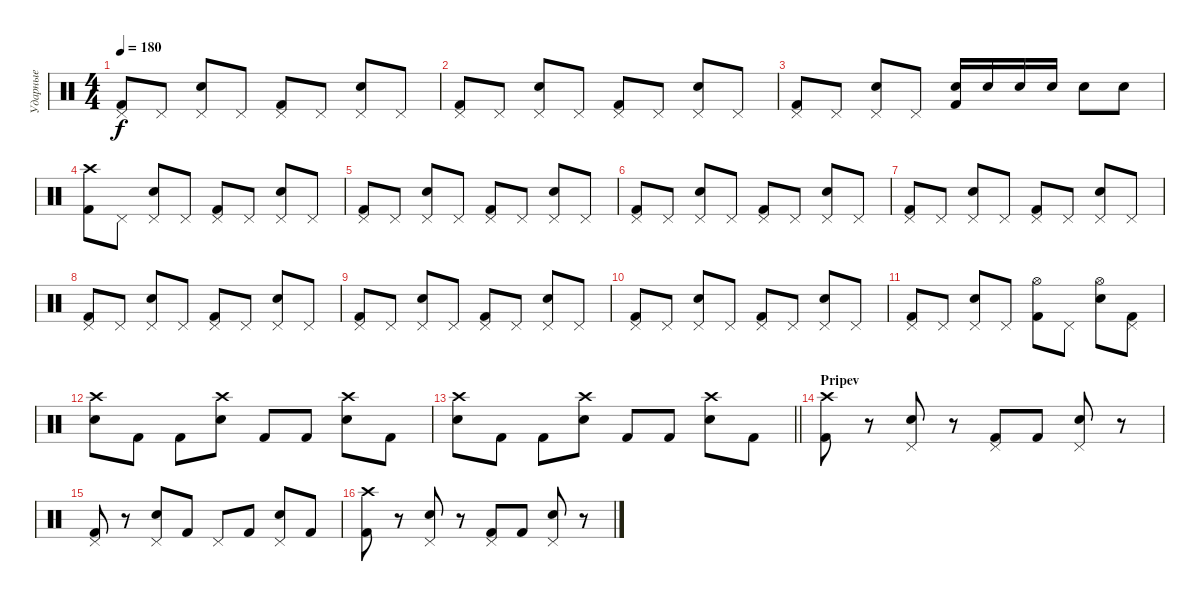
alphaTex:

\track ("Ударные" "Ударные") {instrument percussion}
\staff {score}
\articulation defaults
\ts (4 4)
\tempo 180
\clef neutral
\ks c
("Pedal Hi-Hat (hit)" "Kick (hit) 2").8{dy f} "Pedal Hi-Hat (hit)".8 ("Pedal Hi-Hat (hit)" "Electric Snare (hit)").8 "Pedal Hi-Hat (hit)".8 ("Pedal Hi-Hat (hit)" "Kick (hit) 2").8 "Pedal Hi-Hat (hit)".8 ("Pedal Hi-Hat (hit)" "Electric Snare (hit)").8 "Pedal Hi-Hat (hit)".8 |
("Pedal Hi-Hat (hit)" "Kick (hit) 2").8 "Pedal Hi-Hat (hit)".8 ("Pedal Hi-Hat (hit)" "Electric Snare (hit)").8 "Pedal Hi-Hat (hit)".8 ("Pedal Hi-Hat (hit)" "Kick (hit) 2").8 "Pedal Hi-Hat (hit)".8 ("Pedal Hi-Hat (hit)" "Electric Snare (hit)").8 "Pedal Hi-Hat (hit)".8 |
("Pedal Hi-Hat (hit)" "Kick (hit) 2").8 "Pedal Hi-Hat (hit)".8 ("Pedal Hi-Hat (hit)" "Electric Snare (hit)").8 "Pedal Hi-Hat (hit)".8 ("Electric Snare (hit)" "Kick (hit) 2").16 "Electric Snare (hit)".16 "Electric Snare (hit)".16 "Electric Snare (hit)".16 "Electric Snare (hit)".8 "Electric Snare (hit)".8 |
("Crash high (hit)" "Kick (hit) 2").8 "Pedal Hi-Hat (hit)".8 ("Pedal Hi-Hat (hit)" "Electric Snare (hit)").8 "Pedal Hi-Hat (hit)".8 ("Pedal Hi-Hat (hit)" "Kick (hit) 2").8 "Pedal Hi-Hat (hit)".8 ("Pedal Hi-Hat (hit)" "Electric Snare (hit)").8 "Pedal Hi-Hat (hit)".8 |
("Pedal Hi-Hat (hit)" "Kick (hit) 2").8 "Pedal Hi-Hat (hit)".8 ("Pedal Hi-Hat (hit)" "Electric Snare (hit)").8 "Pedal Hi-Hat (hit)".8 ("Pedal Hi-Hat (hit)" "Kick (hit) 2").8 "Pedal Hi-Hat (hit)".8 ("Pedal Hi-Hat (hit)" "Electric Snare (hit)").8 "Pedal Hi-Hat (hit)".8 |
("Pedal Hi-Hat (hit)" "Kick (hit) 2").8 "Pedal Hi-Hat (hit)".8 ("Pedal Hi-Hat (hit)" "Electric Snare (hit)").8 "Pedal Hi-Hat (hit)".8 ("Pedal Hi-Hat (hit)" "Kick (hit) 2").8 "Pedal Hi-Hat (hit)".8 ("Pedal Hi-Hat (hit)" "Electric Snare (hit)").8 "Pedal Hi-Hat (hit)".8 |
("Pedal Hi-Hat (hit)" "Kick (hit) 2").8 "Pedal Hi-Hat (hit)".8 ("Pedal Hi-Hat (hit)" "Electric Snare (hit)").8 "Pedal Hi-Hat (hit)".8 ("Pedal Hi-Hat (hit)" "Kick (hit) 2").8 "Pedal Hi-Hat (hit)".8 ("Pedal Hi-Hat (hit)" "Electric Snare (hit)").8 "Pedal Hi-Hat (hit)".8 |
("Pedal Hi-Hat (hit)" "Kick (hit) 2").8 "Pedal Hi-Hat (hit)".8 ("Pedal Hi-Hat (hit)" "Electric Snare (hit)").8 "Pedal Hi-Hat (hit)".8 ("Pedal Hi-Hat (hit)" "Kick (hit) 2").8 "Pedal Hi-Hat (hit)".8 ("Pedal Hi-Hat (hit)" "Electric Snare (hit)").8 "Pedal Hi-Hat (hit)".8 |
("Pedal Hi-Hat (hit)" "Kick (hit) 2").8 "Pedal Hi-Hat (hit)".8 ("Pedal Hi-Hat (hit)" "Electric Snare (hit)").8 "Pedal Hi-Hat (hit)".8 ("Pedal Hi-Hat (hit)" "Kick (hit) 2").8 "Pedal Hi-Hat (hit)".8 ("Pedal Hi-Hat (hit)" "Electric Snare (hit)").8 "Pedal Hi-Hat (hit)".8 |
("Pedal Hi-Hat (hit)" "Kick (hit) 2").8 "Pedal Hi-Hat (hit)".8 ("Pedal Hi-Hat (hit)" "Electric Snare (hit)").8 "Pedal Hi-Hat (hit)".8 ("Pedal Hi-Hat (hit)" "Kick (hit) 2").8 "Pedal Hi-Hat (hit)".8 ("Pedal Hi-Hat (hit)" "Electric Snare (hit)").8 "Pedal Hi-Hat (hit)".8 |
("Pedal Hi-Hat (hit)" "Kick (hit) 2").8 "Pedal Hi-Hat (hit)".8 ("Pedal Hi-Hat (hit)" "Electric Snare (hit)").8 "Pedal Hi-Hat (hit)".8 ("Hi-Hat (open)" "Kick (hit) 2").8 "Pedal Hi-Hat (hit)".8 ("Hi-Hat (open)" "Electric Snare (hit)").8 ("Pedal Hi-Hat (hit)" "Kick (hit) 2").8 |
("Crash high (hit)" "Electric Snare (hit)").8 "Kick (hit) 2".8 "Kick (hit) 2".8 ("Crash high (hit)" "Electric Snare (hit)").8 "Kick (hit) 2".8 "Kick (hit) 2".8 ("Crash high (hit)" "Electric Snare (hit)").8 "Kick (hit) 2".8 |
\barLineRight lightlight
("Crash high (hit)" "Electric Snare (hit)").8 "Kick (hit) 2".8 "Kick (hit) 2".8 ("Crash high (hit)" "Electric Snare (hit)").8 "Kick (hit) 2".8 "Kick (hit) 2".8 ("Crash high (hit)" "Electric Snare (hit)").8 "Kick (hit) 2".8 |
\section ("" "Pripev")
("Crash high (hit)" "Kick (hit) 2").8 r.8 ("Pedal Hi-Hat (hit)" "Electric Snare (hit)").8 r.8 ("Pedal Hi-Hat (hit)" "Kick (hit) 2").8 "Kick (hit) 2".8 ("Pedal Hi-Hat (hit)" "Electric Snare (hit)").8 r.8 |
("Pedal Hi-Hat (hit)" "Kick (hit) 2").8 r.8 ("Pedal Hi-Hat (hit)" "Electric Snare (hit)").8 "Kick (hit) 2".8 "Pedal Hi-Hat (hit)".8 "Kick (hit) 2".8 ("Pedal Hi-Hat (hit)" "Electric Snare (hit)").8 "Kick (hit) 2".8 |
("Crash high (hit)" "Kick (hit) 2").8 r.8 ("Pedal Hi-Hat (hit)" "Electric Snare (hit)").8 r.8 ("Pedal Hi-Hat (hit)" "Kick (hit) 2").8 "Kick (hit) 2".8 ("Pedal Hi-Hat (hit)" "Electric Snare (hit)").8 r.8
